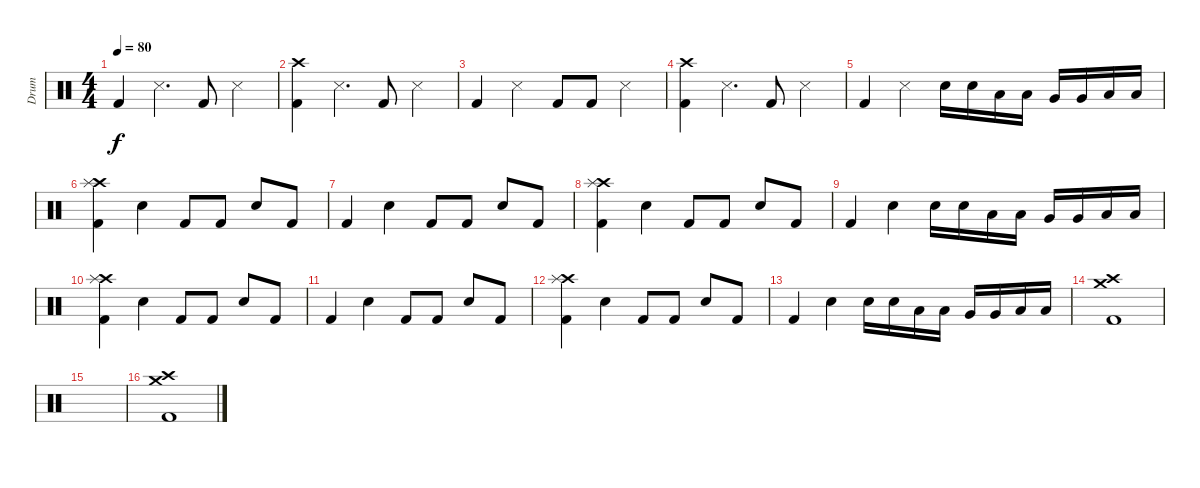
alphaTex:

\track ("Drum" "Drum") {instrument percussion}
\staff {score}
\articulation defaults
\ts (4 4)
\tempo 80
\clef neutral
\ks c "Kick (hit) 2".4{dy f} "Snare (side stick) 3".4{d} "Kick (hit) 2".8 "Snare (side stick) 3".4
|
("Kick (hit) 2" "Crash high (hit)").4 "Snare (side stick) 3".4{d} "Kick (hit) 2".8 "Snare (side stick) 3".4 |
"Kick (hit) 2".4 "Snare (side stick) 3".4 "Kick (hit) 2".8 "Kick (hit) 2".8 "Snare (side stick) 3".4 |
("Kick (hit) 2" "Crash high (hit)").4 "Snare (side stick) 3".4{d} "Kick (hit) 2".8 "Snare (side stick) 3".4 |
"Kick (hit) 2".4 "Snare (side stick) 3".4 "Snare (hit) 2".16 "Snare (hit) 2".16 "Low Floor Tom (hit)".16 "Low Floor Tom (hit)".16 "Very Low Tom (hit)".16 "Very Low Tom (hit)".16 "Low Floor Tom (hit)".16 "Low Floor Tom (hit)".16 |
("Kick (hit) 2" "Crash high (hit)" "Splash (hit)").4 "Snare (hit) 2".4 "Kick (hit) 2".8 "Kick (hit) 2".8 "Snare (hit) 2".8 "Kick (hit) 2".8 |
"Kick (hit) 2".4 "Snare (hit) 2".4 "Kick (hit) 2".8 "Kick (hit) 2".8 "Snare (hit) 2".8 "Kick (hit) 2".8 |
("Kick (hit) 2" "Crash high (hit)" "Splash (hit)").4 "Snare (hit) 2".4 "Kick (hit) 2".8 "Kick (hit) 2".8 "Snare (hit) 2".8 "Kick (hit) 2".8 |
"Kick (hit) 2".4 "Snare (hit) 2".4 "Snare (hit) 2".16 "Snare (hit) 2".16 "Low Floor Tom (hit)".16 "Low Floor Tom (hit)".16 "Very Low Tom (hit)".16 "Very Low Tom (hit)".16 "Low Floor Tom (hit)".16 "Low Floor Tom (hit)".16 |
("Kick (hit) 2" "Crash high (hit)" "Splash (hit)").4 "Snare (hit) 2".4 "Kick (hit) 2".8 "Kick (hit) 2".8 "Snare (hit) 2".8 "Kick (hit) 2".8 |
"Kick (hit) 2".4 "Snare (hit) 2".4 "Kick (hit) 2".8 "Kick (hit) 2".8 "Snare (hit) 2".8 "Kick (hit) 2".8 |
("Kick (hit) 2" "Crash high (hit)" "Splash (hit)").4 "Snare (hit) 2".4 "Kick (hit) 2".8 "Kick (hit) 2".8 "Snare (hit) 2".8 "Kick (hit) 2".8 |
"Kick (hit) 2".4 "Snare (hit) 2".4 "Snare (hit) 2".16 "Snare (hit) 2".16 "Low Floor Tom (hit)".16 "Low Floor Tom (hit)".16 "Very Low Tom (hit)".16 "Very Low Tom (hit)".16 "Low Floor Tom (hit)".16 "Low Floor Tom (hit)".16 |
("Kick (hit) 2" "Crash high (hit)" "Crash medium (hit)").1 |
|
("Kick (hit) 2" "Crash high (hit)" "Crash medium (hit)").1
